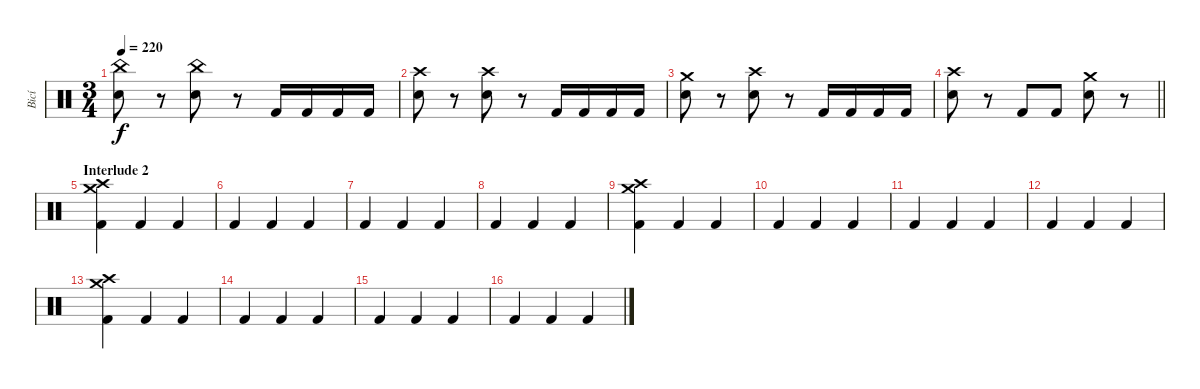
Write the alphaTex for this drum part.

\track ("Bicí" "Bicí") {instrument percussion}
\staff {score}
\articulation defaults
\ts (3 4)
\tempo 220
\clef neutral
\ks c
("China (hit)" "Electric Snare (hit)").8{dy f} r.8 ("China (hit)" "Electric Snare (hit)").8 r.8 "Kick (hit) 2".16 "Kick (hit) 2".16 "Kick (hit) 2".16 "Kick (hit) 2".16 |
("Crash high (hit)" "Electric Snare (hit)").8 r.8 ("Crash high (hit)" "Electric Snare (hit)").8 r.8 "Kick (hit) 2".16 "Kick (hit) 2".16 "Kick (hit) 2".16 "Kick (hit) 2".16 |
("Crash medium (hit)" "Electric Snare (hit)").8 r.8 ("Crash high (hit)" "Electric Snare (hit)").8 r.8 "Kick (hit) 2".16 "Kick (hit) 2".16 "Kick (hit) 2".16 "Kick (hit) 2".16 |
\barLineRight lightlight
("Crash high (hit)" "Electric Snare (hit)").8 r.8 "Kick (hit) 2".8 "Kick (hit) 2".8 ("Crash medium (hit)" "Electric Snare (hit)").8 r.8 |
\section ("" "Interlude 2")
("Crash medium (hit)" "Crash high (hit)" "Kick (hit) 2").4 "Kick (hit) 2".4 "Kick (hit) 2".4 |
"Kick (hit) 2".4 "Kick (hit) 2".4 "Kick (hit) 2".4 |
"Kick (hit) 2".4 "Kick (hit) 2".4 "Kick (hit) 2".4 |
"Kick (hit) 2".4 "Kick (hit) 2".4 "Kick (hit) 2".4 |
("Crash medium (hit)" "Crash high (hit)" "Kick (hit) 2").4 "Kick (hit) 2".4 "Kick (hit) 2".4 |
"Kick (hit) 2".4 "Kick (hit) 2".4 "Kick (hit) 2".4 |
"Kick (hit) 2".4 "Kick (hit) 2".4 "Kick (hit) 2".4 |
"Kick (hit) 2".4 "Kick (hit) 2".4 "Kick (hit) 2".4 |
("Crash medium (hit)" "Crash high (hit)" "Kick (hit) 2").4 "Kick (hit) 2".4 "Kick (hit) 2".4 |
"Kick (hit) 2".4 "Kick (hit) 2".4 "Kick (hit) 2".4 |
"Kick (hit) 2".4 "Kick (hit) 2".4 "Kick (hit) 2".4 |
"Kick (hit) 2".4 "Kick (hit) 2".4 "Kick (hit) 2".4
